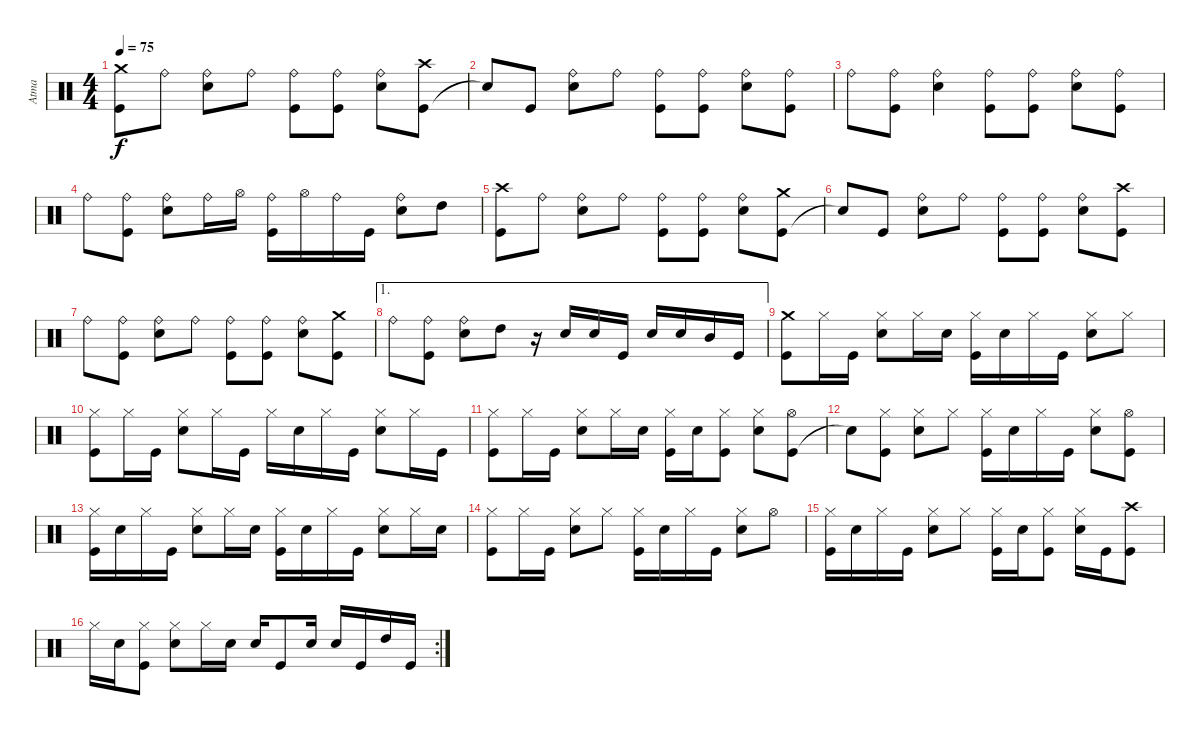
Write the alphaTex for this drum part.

\track ("Atma" "Atma") {instrument percussion}
\staff {score}
\articulation defaults
\ts (4 4)
\tempo 75
\clef neutral
\ks c
("Kick (hit)" "Crash medium (hit)").8{dy f} "Ride (bell)".8 ("Snare (hit) 2" "Ride (bell)").8 "Ride (bell)".8 ("Kick (hit)" "Ride (bell)").8 ("Kick (hit)" "Ride (bell)").8 ("Snare (hit) 2" "Ride (bell)").8 ("Kick (hit)" "Crash high (hit)").8 |
"Snare (hit)"{t}.8 "Kick (hit)".8 ("Snare (hit) 2" "Ride (bell)").8 "Ride (bell)".8 ("Kick (hit)" "Ride (bell)").8 ("Kick (hit)" "Ride (bell)").8 ("Snare (hit) 2" "Ride (bell)").8 ("Kick (hit)" "Ride (bell)").8 |
"Ride (bell)".8 ("Kick (hit)" "Ride (bell)").8 ("Snare (hit) 2" "Ride (bell)").4 ("Kick (hit)" "Ride (bell)").8 ("Kick (hit)" "Ride (bell)").8 ("Snare (hit) 2" "Ride (bell)").8 ("Kick (hit)" "Ride (bell)").8 |
"Ride (bell)".8 ("Kick (hit)" "Ride (bell)").8 ("Snare (hit) 2" "Ride (bell)").8 "Ride (bell)".16 "Hi-Hat (open)".16 ("Kick (hit)" "Ride (bell)").16 "Hi-Hat (open)".16 "Ride (bell)".16 "Kick (hit)".16 ("Snare (hit) 2" "Ride (bell)").8 "High Tom (hit)".8 |
("Kick (hit)" "Crash high (hit)").8 "Ride (bell)".8 ("Snare (hit) 2" "Ride (bell)").8 "Ride (bell)".8 ("Kick (hit)" "Ride (bell)").8 ("Kick (hit)" "Ride (bell)").8 ("Snare (hit) 2" "Ride (bell)").8 ("Kick (hit)" "Crash medium (hit)").8 |
"Snare (hit)"{t}.8 "Kick (hit)".8 ("Snare (hit) 2" "Ride (bell)").8 "Ride (bell)".8 ("Kick (hit)" "Ride (bell)").8 ("Kick (hit)" "Ride (bell)").8 ("Snare (hit) 2" "Ride (bell)").8 ("Kick (hit)" "Crash high (hit)").8 |
"Ride (bell)".8 ("Kick (hit)" "Ride (bell)").8 ("Snare (hit) 2" "Ride (bell)").8 "Ride (bell)".8 ("Kick (hit)" "Ride (bell)").8 ("Kick (hit)" "Ride (bell)").8 ("Snare (hit) 2" "Ride (bell)").8 ("Kick (hit)" "Crash medium (hit)").8 |
\ae 1 "Ride (bell)".8
("Kick (hit)" "Ride (bell)").8 ("Snare (hit) 2" "Ride (bell)").8 "High Tom (hit)".8 r.16 "Snare (hit) 2".16 "Snare (hit) 2".16 "Kick (hit)".16 "Snare (hit) 2".16 "Snare (hit) 2".16 "Mid Tom (hit)".16 "Kick (hit)".16 |
("Kick (hit)" "Crash medium (hit)").8 "Hi-Hat (closed)".16 "Kick (hit)".16 ("Snare (hit) 2" "Hi-Hat (closed)").8 "Hi-Hat (closed)".16 "Snare (hit) 2".16 ("Kick (hit)" "Hi-Hat (closed)").16 "Snare (hit) 2".16 "Hi-Hat (closed)".16 "Kick (hit)".16 ("Snare (hit) 2" "Hi-Hat (closed)").8 "Hi-Hat (closed)".8 |
("Kick (hit)" "Hi-Hat (closed)").8 "Hi-Hat (closed)".16 "Kick (hit)".16 ("Snare (hit) 2" "Hi-Hat (closed)").8 "Hi-Hat (closed)".16 "Kick (hit)".16 "Hi-Hat (closed)".16 "Snare (hit) 2".16 "Hi-Hat (closed)".16 "Kick (hit)".16 ("Snare (hit) 2" "Hi-Hat (closed)").8 "Hi-Hat (closed)".16 "Kick (hit)".16 |
("Kick (hit)" "Hi-Hat (closed)").8 "Hi-Hat (closed)".16 "Kick (hit)".16 ("Snare (hit) 2" "Hi-Hat (closed)").8 "Hi-Hat (closed)".16 "Snare (hit) 2".16 ("Kick (hit)" "Hi-Hat (closed)").16 "Snare (hit) 2".16 ("Kick (hit)" "Hi-Hat (closed)").8 ("Snare (hit) 2" "Hi-Hat (closed)").8 ("Kick (hit)" "Hi-Hat (open)").8 |
"Snare (hit)"{t}.8 ("Kick (hit)" "Hi-Hat (closed)").8 ("Snare (hit) 2" "Hi-Hat (closed)").8 "Hi-Hat (closed)".8 ("Kick (hit)" "Hi-Hat (closed)").16 "Snare (hit) 2".16 "Hi-Hat (closed)".16 "Kick (hit)".16 ("Snare (hit) 2" "Hi-Hat (closed)").8 ("Kick (hit)" "Hi-Hat (open)").8 |
("Kick (hit)" "Hi-Hat (closed)").16 "Snare (hit) 2".16 "Hi-Hat (closed)".16 "Kick (hit)".16 ("Snare (hit) 2" "Hi-Hat (closed)").8 "Hi-Hat (closed)".16 "Snare (hit) 2".16 ("Kick (hit)" "Hi-Hat (closed)").16 "Snare (hit) 2".16 "Hi-Hat (closed)".16 "Kick (hit)".16 ("Snare (hit) 2" "Hi-Hat (closed)").8 "Hi-Hat (closed)".16 "Snare (hit) 2".16 |
("Kick (hit)" "Hi-Hat (closed)").8 "Hi-Hat (closed)".16 "Kick (hit)".16 ("Snare (hit) 2" "Hi-Hat (closed)").8 "Hi-Hat (closed)".8 ("Kick (hit)" "Hi-Hat (closed)").16 "Snare (hit) 2".16 "Hi-Hat (closed)".16 "Kick (hit)".16 ("Snare (hit) 2" "Hi-Hat (closed)").8 "Hi-Hat (open)".8 |
("Kick (hit)" "Hi-Hat (closed)").16 "Snare (hit) 2".16 "Hi-Hat (closed)".16 "Kick (hit)".16 ("Snare (hit) 2" "Hi-Hat (closed)").8 "Hi-Hat (closed)".8 ("Kick (hit)" "Hi-Hat (closed)").16 "Snare (hit) 2".16 ("Kick (hit)" "Hi-Hat (closed)").8 ("Snare (hit) 2" "Hi-Hat (closed)").16 "Kick (hit)".16 ("Kick (hit)" "Crash high (hit)").8 |
\rc 2 "Hi-Hat (closed)".16 "Snare (hit) 2".16
("Kick (hit)" "Hi-Hat (closed)").8 ("Snare (hit) 2" "Hi-Hat (closed)").8 "Hi-Hat (closed)".16 "Snare (hit) 2".16 "Snare (hit) 2".16 "Kick (hit)".8 "Snare (hit) 2".16 "Snare (hit) 2".16 "Kick (hit)".16 "High Tom (hit)".16 "Kick (hit)".16
